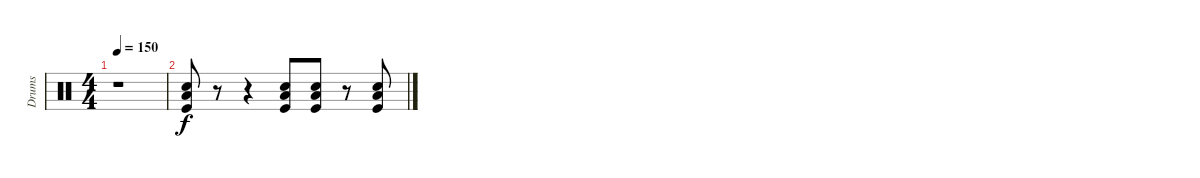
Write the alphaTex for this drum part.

\track ("Drums" "Drums") {instrument percussion}
\staff {score}
\articulation defaults
\ts (4 4)
\tempo 150
\clef neutral
\ks c
r.1{dy f} |
("Electric Snare (hit)" "Low Floor Tom (hit)" "Kick (hit)").8 r.8 r.4 ("Electric Snare (hit)" "Low Floor Tom (hit)" "Kick (hit)").8 ("Electric Snare (hit)" "Low Floor Tom (hit)" "Kick (hit)").8 r.8 ("Electric Snare (hit)" "Low Floor Tom (hit)" "Kick (hit)").8
